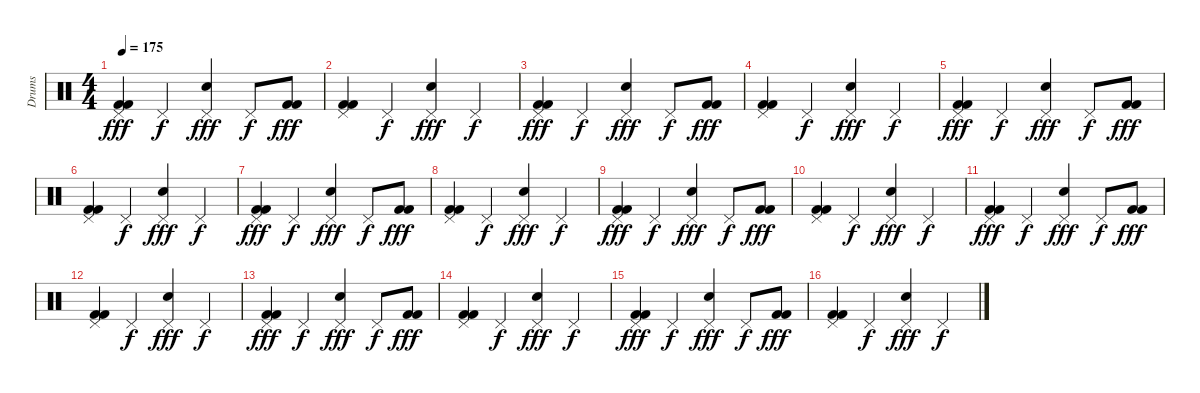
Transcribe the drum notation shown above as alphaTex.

\track ("Drums" "Drums") {instrument percussion}
\staff {score}
\articulation defaults
\ts (4 4)
\tempo 175
\clef neutral
\ks c
("Pedal Hi-Hat (hit)" "Kick (hit) 2" "Kick (hit) 2").4{dy fff} "Pedal Hi-Hat (hit)".4{dy f} ("Pedal Hi-Hat (hit)" "Snare (hit) 2").4{dy fff} "Pedal Hi-Hat (hit)".8{dy f} ("Kick (hit) 2" "Kick (hit) 2").8{dy fff} |
("Pedal Hi-Hat (hit)" "Kick (hit) 2" "Kick (hit) 2").4 "Pedal Hi-Hat (hit)".4{dy f} ("Pedal Hi-Hat (hit)" "Snare (hit) 2").4{dy fff} "Pedal Hi-Hat (hit)".4{dy f} |
("Pedal Hi-Hat (hit)" "Kick (hit) 2" "Kick (hit) 2").4{dy fff} "Pedal Hi-Hat (hit)".4{dy f} ("Pedal Hi-Hat (hit)" "Snare (hit) 2").4{dy fff} "Pedal Hi-Hat (hit)".8{dy f} ("Kick (hit) 2" "Kick (hit) 2").8{dy fff} |
("Pedal Hi-Hat (hit)" "Kick (hit) 2" "Kick (hit) 2").4 "Pedal Hi-Hat (hit)".4{dy f} ("Pedal Hi-Hat (hit)" "Snare (hit) 2").4{dy fff} "Pedal Hi-Hat (hit)".4{dy f} |
("Pedal Hi-Hat (hit)" "Kick (hit) 2" "Kick (hit) 2").4{dy fff} "Pedal Hi-Hat (hit)".4{dy f} ("Pedal Hi-Hat (hit)" "Snare (hit) 2").4{dy fff} "Pedal Hi-Hat (hit)".8{dy f} ("Kick (hit) 2" "Kick (hit) 2").8{dy fff} |
("Pedal Hi-Hat (hit)" "Kick (hit) 2" "Kick (hit) 2").4 "Pedal Hi-Hat (hit)".4{dy f} ("Pedal Hi-Hat (hit)" "Snare (hit) 2").4{dy fff} "Pedal Hi-Hat (hit)".4{dy f} |
("Pedal Hi-Hat (hit)" "Kick (hit) 2" "Kick (hit) 2").4{dy fff} "Pedal Hi-Hat (hit)".4{dy f} ("Pedal Hi-Hat (hit)" "Snare (hit) 2").4{dy fff} "Pedal Hi-Hat (hit)".8{dy f} ("Kick (hit) 2" "Kick (hit) 2").8{dy fff} |
("Pedal Hi-Hat (hit)" "Kick (hit) 2" "Kick (hit) 2").4 "Pedal Hi-Hat (hit)".4{dy f} ("Pedal Hi-Hat (hit)" "Snare (hit) 2").4{dy fff} "Pedal Hi-Hat (hit)".4{dy f} |
("Pedal Hi-Hat (hit)" "Kick (hit) 2" "Kick (hit) 2").4{dy fff} "Pedal Hi-Hat (hit)".4{dy f} ("Pedal Hi-Hat (hit)" "Snare (hit) 2").4{dy fff} "Pedal Hi-Hat (hit)".8{dy f} ("Kick (hit) 2" "Kick (hit) 2").8{dy fff} |
("Pedal Hi-Hat (hit)" "Kick (hit) 2" "Kick (hit) 2").4 "Pedal Hi-Hat (hit)".4{dy f} ("Pedal Hi-Hat (hit)" "Snare (hit) 2").4{dy fff} "Pedal Hi-Hat (hit)".4{dy f} |
("Pedal Hi-Hat (hit)" "Kick (hit) 2" "Kick (hit) 2").4{dy fff} "Pedal Hi-Hat (hit)".4{dy f} ("Pedal Hi-Hat (hit)" "Snare (hit) 2").4{dy fff} "Pedal Hi-Hat (hit)".8{dy f} ("Kick (hit) 2" "Kick (hit) 2").8{dy fff} |
("Pedal Hi-Hat (hit)" "Kick (hit) 2" "Kick (hit) 2").4 "Pedal Hi-Hat (hit)".4{dy f} ("Pedal Hi-Hat (hit)" "Snare (hit) 2").4{dy fff} "Pedal Hi-Hat (hit)".4{dy f} |
("Pedal Hi-Hat (hit)" "Kick (hit) 2" "Kick (hit) 2").4{dy fff} "Pedal Hi-Hat (hit)".4{dy f} ("Pedal Hi-Hat (hit)" "Snare (hit) 2").4{dy fff} "Pedal Hi-Hat (hit)".8{dy f} ("Kick (hit) 2" "Kick (hit) 2").8{dy fff} |
("Pedal Hi-Hat (hit)" "Kick (hit) 2" "Kick (hit) 2").4 "Pedal Hi-Hat (hit)".4{dy f} ("Pedal Hi-Hat (hit)" "Snare (hit) 2").4{dy fff} "Pedal Hi-Hat (hit)".4{dy f} |
("Pedal Hi-Hat (hit)" "Kick (hit) 2" "Kick (hit) 2").4{dy fff} "Pedal Hi-Hat (hit)".4{dy f} ("Pedal Hi-Hat (hit)" "Snare (hit) 2").4{dy fff} "Pedal Hi-Hat (hit)".8{dy f} ("Kick (hit) 2" "Kick (hit) 2").8{dy fff} |
("Pedal Hi-Hat (hit)" "Kick (hit) 2" "Kick (hit) 2").4 "Pedal Hi-Hat (hit)".4{dy f} ("Pedal Hi-Hat (hit)" "Snare (hit) 2").4{dy fff} "Pedal Hi-Hat (hit)".4{dy f}
